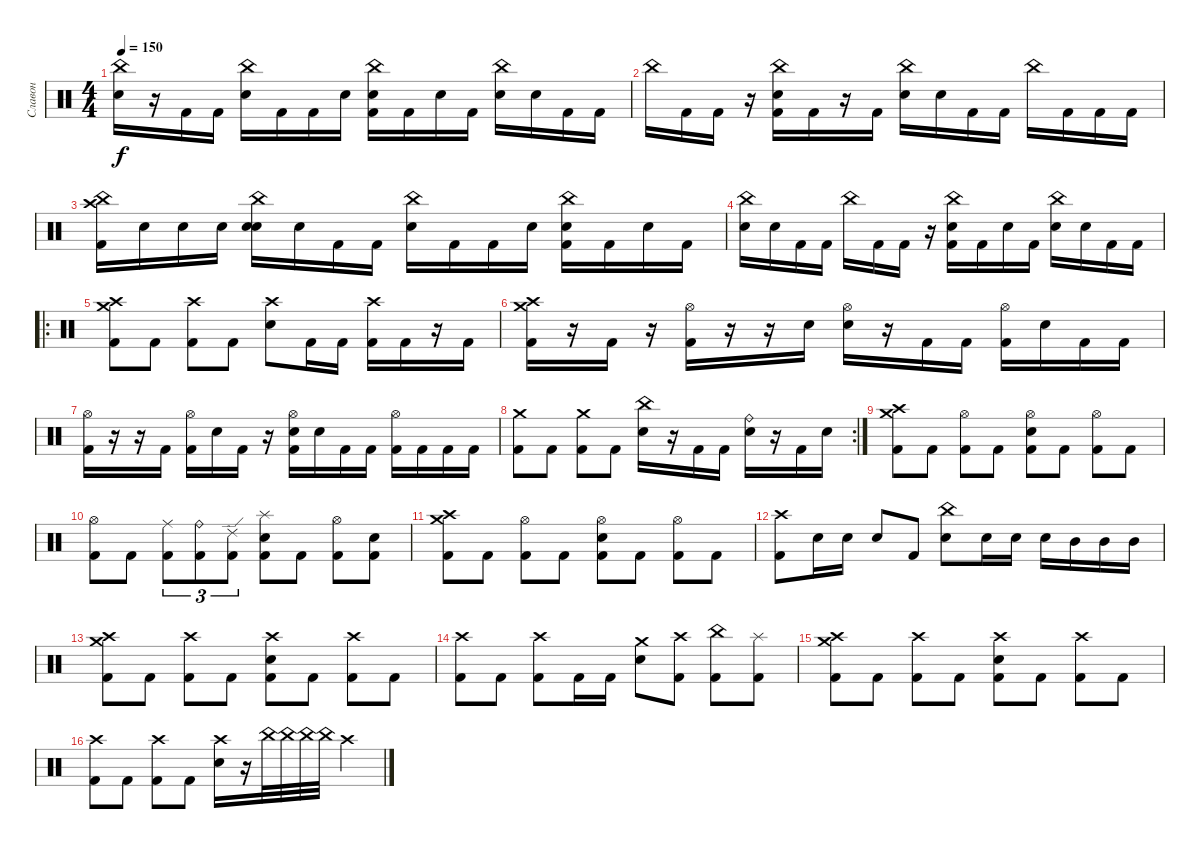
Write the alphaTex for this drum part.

\track ("Славон" "Славон") {instrument percussion}
\staff {score}
\articulation defaults
\ts (4 4)
\tempo 150
\clef neutral
\ks c
("China (hit)" "Electric Snare (hit)").16{dy f} r.16 "Kick (hit) 2".16 "Kick (hit) 2".16 ("China (hit)" "Snare (hit)").16 "Kick (hit) 2".16 "Kick (hit) 2".16 "Snare (hit)".16 ("China (hit)" "Electric Snare (hit)" "Kick (hit) 2").16 "Kick (hit) 2".16 "Snare (hit)".16 "Kick (hit) 2".16 ("China (hit)" "Snare (hit)").16 "Snare (hit)".16 "Kick (hit) 2".16 "Kick (hit) 2".16 |
"China (hit)".16 "Kick (hit) 2".16 "Kick (hit) 2".16 r.16 ("China (hit)" "Electric Snare (hit)" "Kick (hit) 2").16 "Kick (hit) 2".16 r.16 "Kick (hit) 2".16 ("China (hit)" "Snare (hit)").16 "Snare (hit)".16 "Kick (hit) 2".16 "Kick (hit) 2".16 "China (hit)".16 "Kick (hit) 2".16 "Kick (hit) 2".16 "Kick (hit) 2".16 |
("China (hit)" "Crash high (hit)" "Kick (hit) 2").16 "Snare (hit)".16 "Snare (hit)".16 "Snare (hit)".16 ("China (hit)" "Electric Snare (hit)" "Snare (hit)").16 "Snare (hit)".16 "Kick (hit) 2".16 "Kick (hit) 2".16 ("China (hit)" "Snare (hit)").16 "Kick (hit) 2".16 "Kick (hit) 2".16 "Snare (hit)".16 ("China (hit)" "Electric Snare (hit)" "Kick (hit) 2").16 "Kick (hit) 2".16 "Snare (hit)".16 "Kick (hit) 2".16 |
("China (hit)" "Snare (hit)").16 "Snare (hit)".16 "Kick (hit) 2".16 "Kick (hit) 2".16 "China (hit)".16 "Kick (hit) 2".16 "Kick (hit) 2".16 r.16 ("China (hit)" "Electric Snare (hit)" "Kick (hit) 2").16 "Kick (hit) 2".16 "Snare (hit)".16 "Kick (hit) 2".16 ("China (hit)" "Snare (hit)").16 "Snare (hit)".16 "Kick (hit) 2".16 "Kick (hit) 2".16 |
\ro
("Crash medium (hit)" "Crash high (hit)" "Kick (hit) 2").8 "Kick (hit) 2".8 ("Crash high (hit)" "Kick (hit) 2").8 "Kick (hit) 2".8 ("Crash high (hit)" "Electric Snare (hit)").8 "Kick (hit) 2".16 "Kick (hit) 2".16 ("Crash high (hit)" "Kick (hit) 2").16 "Kick (hit) 2".16 r.16 "Kick (hit) 2".16 |
("Crash medium (hit)" "Crash high (hit)" "Kick (hit) 2").16 r.16 "Kick (hit) 2".16 r.16 ("Hi-Hat (open)" "Kick (hit) 2").16 r.16 r.16 "Snare (hit)".16 ("Hi-Hat (open)" "Electric Snare (hit)").16 r.16 "Kick (hit) 2".16 "Kick (hit) 2".16 ("Hi-Hat (open)" "Kick (hit) 2").16 "Snare (hit)".16 "Kick (hit) 2".16 "Kick (hit) 2".16 |
("Hi-Hat (open)" "Kick (hit) 2").16 r.16 r.16 "Kick (hit) 2".16 ("Hi-Hat (open)" "Kick (hit) 2").16 "Snare (hit)".16 "Kick (hit) 2".16 r.16 ("Hi-Hat (open)" "Electric Snare (hit)" "Kick (hit) 2").16 "Snare (hit)".16 "Kick (hit) 2".16 "Kick (hit) 2".16 ("Hi-Hat (open)" "Kick (hit) 2").16 "Kick (hit) 2".16 "Kick (hit) 2".16 "Kick (hit) 2".16 |
\rc 2
("Crash medium (hit)" "Kick (hit) 2").8 "Kick (hit) 2".8 ("Crash medium (hit)" "Kick (hit) 2").8 "Kick (hit) 2".8 ("China (hit)" "Electric Snare (hit)").16 r.16 "Kick (hit) 2".16 "Kick (hit) 2".16 ("Ride (bell)" "Electric Snare (hit)").16 r.16 "Kick (hit) 2".16 "Snare (hit)".16 |
("Crash medium (hit)" "Crash high (hit)" "Kick (hit) 2").8 "Kick (hit) 2".8 ("Hi-Hat (open)" "Kick (hit) 2").8 "Kick (hit) 2".8 ("Hi-Hat (open)" "Electric Snare (hit)" "Kick (hit) 2").8 "Kick (hit) 2".8 ("Hi-Hat (open)" "Kick (hit) 2").8 "Kick (hit) 2".8 |
("Hi-Hat (open)" "Kick (hit) 2").8 "Kick (hit) 2".8 ("Ride (middle)" "Kick (hit) 2").8{tu (3 2)} ("Ride (bell)" "Kick (hit) 2").8{tu (3 2)} ("Ride (edge) 2" "Kick (hit) 2").8{tu (3 2)} ("Splash (hit)" "Electric Snare (hit)" "Kick (hit) 2").8 "Kick (hit) 2".8 ("Hi-Hat (open)" "Kick (hit) 2").8 ("Electric Snare (hit)" "Kick (hit) 2").8 |
("Crash medium (hit)" "Crash high (hit)" "Kick (hit) 2").8 "Kick (hit) 2".8 ("Hi-Hat (open)" "Kick (hit) 2").8 "Kick (hit) 2".8 ("Hi-Hat (open)" "Electric Snare (hit)" "Kick (hit) 2").8 "Kick (hit) 2".8 ("Hi-Hat (open)" "Kick (hit) 2").8 "Kick (hit) 2".8 |
("Crash high (hit)" "Kick (hit) 2").8 "Electric Snare (hit)".16 "Electric Snare (hit)".16 "Electric Snare (hit)".8 "Kick (hit) 2".8 ("China (hit)" "Electric Snare (hit)").8 "Electric Snare (hit)".16 "Electric Snare (hit)".16 "Electric Snare (hit)".16 "Mid Tom (hit)".16 "Mid Tom (hit)".16 "Mid Tom (hit)".16 |
("Crash medium (hit)" "Crash high (hit)" "Kick (hit) 2").8 "Kick (hit) 2".8 ("Crash high (hit)" "Kick (hit) 2").8 "Kick (hit) 2".8 ("Crash high (hit)" "Electric Snare (hit)" "Kick (hit) 2").8 "Kick (hit) 2".8 ("Crash high (hit)" "Kick (hit) 2").8 "Kick (hit) 2".8 |
("Crash high (hit)" "Kick (hit) 2").8 "Kick (hit) 2".8 ("Crash high (hit)" "Kick (hit) 2").8 "Kick (hit) 2".16 "Kick (hit) 2".16 ("Crash medium (hit)" "Electric Snare (hit)").8 ("Crash high (hit)" "Kick (hit) 2").8 ("China (hit)" "Kick (hit) 2").8 ("Splash (hit)" "Kick (hit) 2").8 |
("Crash medium (hit)" "Crash high (hit)" "Kick (hit) 2").8 "Kick (hit) 2".8 ("Crash high (hit)" "Kick (hit) 2").8 "Kick (hit) 2".8 ("Crash high (hit)" "Electric Snare (hit)" "Kick (hit) 2").8 "Kick (hit) 2".8 ("Crash high (hit)" "Kick (hit) 2").8 "Kick (hit) 2".8 |
("Crash high (hit)" "Kick (hit) 2").8 "Kick (hit) 2".8 ("Crash high (hit)" "Kick (hit) 2").8 "Kick (hit) 2".8 ("Crash high (hit)" "Electric Snare (hit)").16 r.16 "China (hit)".32 "China (hit)".32 "China (hit)".32 "China (hit)".32 "Crash high (hit)".4
